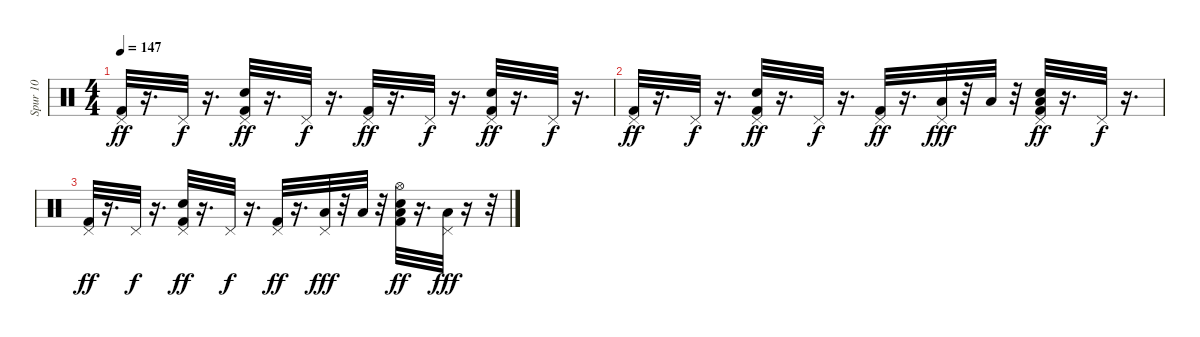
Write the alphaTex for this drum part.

\track ("Spur 10" "Spur 10") {instrument percussion}
\staff {score}
\articulation defaults
\ts (4 4)
\tempo 147
\clef neutral
\ks c
("Pedal Hi-Hat (hit)" "Kick (hit) 2").32{dy ff volume 2} r.16{d} "Pedal Hi-Hat (hit)".32{dy f volume 2} r.16{d} ("Snare (hit) 2" "Kick (hit) 2" "Pedal Hi-Hat (hit)").32{dy ff volume 2} r.16{d} "Pedal Hi-Hat (hit)".32{dy f volume 2} r.16{d} ("Kick (hit) 2" "Pedal Hi-Hat (hit)").32{dy ff volume 2} r.16{d} "Pedal Hi-Hat (hit)".32{dy f volume 2} r.16{d} ("Snare (hit) 2" "Pedal Hi-Hat (hit)" "Kick (hit) 2").32{dy ff volume 2} r.16{d} "Pedal Hi-Hat (hit)".32{dy f volume 2} r.16{d} |
("Pedal Hi-Hat (hit)" "Kick (hit) 2").32{dy ff volume 1} r.16{d} "Pedal Hi-Hat (hit)".32{dy f volume 1} r.16{d} ("Snare (hit) 2" "Kick (hit) 2" "Pedal Hi-Hat (hit)").32{dy ff volume 1} r.16{d} "Pedal Hi-Hat (hit)".32{dy f volume 1} r.16{d} ("Kick (hit) 2" "Pedal Hi-Hat (hit)").32{dy ff volume 1} r.16{d} ("Low Tom (hit)" "Pedal Hi-Hat (hit)").32{dy fff volume 1} r.32 "Low Tom (hit)".32{volume 1} r.32 ("Low Tom (hit)" "Snare (hit) 2" "Pedal Hi-Hat (hit)" "Kick (hit) 2").32{dy ff volume 0} r.16{d} "Pedal Hi-Hat (hit)".32{dy f volume 0} r.16{d} |
("Pedal Hi-Hat (hit)" "Kick (hit) 2").32{dy ff volume 0} r.16{d} "Pedal Hi-Hat (hit)".32{dy f volume 0} r.16{d} ("Snare (hit) 2" "Kick (hit) 2" "Pedal Hi-Hat (hit)").32{dy ff volume 0} r.16{d} "Pedal Hi-Hat (hit)".32{dy f volume 0} r.16{d} ("Kick (hit) 2" "Pedal Hi-Hat (hit)").32{dy ff} r.16{d} ("Low Tom (hit)" "Pedal Hi-Hat (hit)").32{dy fff} r.32 "Low Tom (hit)".32 r.32 ("Low Tom (hit)" "Snare (hit) 2" "Hi-Hat (open)" "Kick (hit) 2").32{dy ff} r.16{d} ("Low Floor Tom (hit)" "Pedal Hi-Hat (hit)").32{dy fff} r.16 r.32
